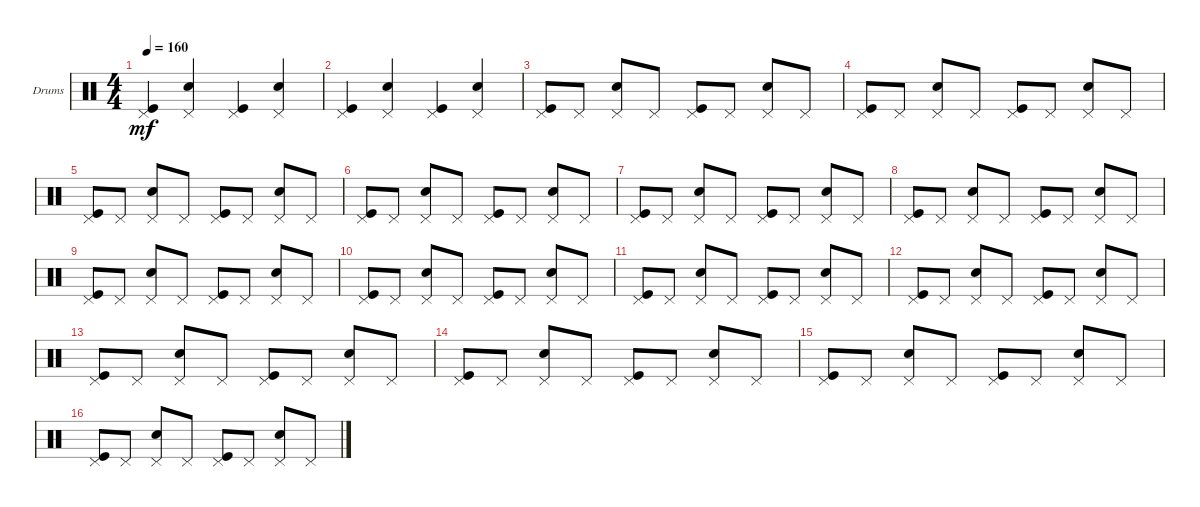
\defaultSystemsLayout 4
\bracketExtendMode groupsimilarinstruments
\firstSystemTrackNameOrientation horizontal
\otherSystemsTrackNameOrientation horizontal
\track ("Drums" "Drums") {instrument percussion}
\staff {score}
\articulation defaults
\ts (4 4)
\tempo 160
\clef neutral
\ks c
("Pedal Hi-Hat (hit)" "Kick (hit)").4{dy mf} ("Pedal Hi-Hat (hit)" "Snare (hit) 2").4 ("Pedal Hi-Hat (hit)" "Kick (hit)").4 ("Pedal Hi-Hat (hit)" "Snare (hit) 2").4 |
("Pedal Hi-Hat (hit)" "Kick (hit)").4 ("Pedal Hi-Hat (hit)" "Snare (hit) 2").4 ("Pedal Hi-Hat (hit)" "Kick (hit)").4 ("Pedal Hi-Hat (hit)" "Snare (hit) 2").4 |
("Pedal Hi-Hat (hit)" "Kick (hit)").8 "Pedal Hi-Hat (hit)".8 ("Pedal Hi-Hat (hit)" "Snare (hit) 2").8 "Pedal Hi-Hat (hit)".8 ("Pedal Hi-Hat (hit)" "Kick (hit)").8 "Pedal Hi-Hat (hit)".8 ("Pedal Hi-Hat (hit)" "Snare (hit) 2").8 "Pedal Hi-Hat (hit)".8 |
("Pedal Hi-Hat (hit)" "Kick (hit)").8 "Pedal Hi-Hat (hit)".8 ("Pedal Hi-Hat (hit)" "Snare (hit) 2").8 "Pedal Hi-Hat (hit)".8 ("Pedal Hi-Hat (hit)" "Kick (hit)").8 "Pedal Hi-Hat (hit)".8 ("Pedal Hi-Hat (hit)" "Snare (hit) 2").8 "Pedal Hi-Hat (hit)".8 |
("Pedal Hi-Hat (hit)" "Kick (hit)").8 "Pedal Hi-Hat (hit)".8 ("Pedal Hi-Hat (hit)" "Snare (hit) 2").8 "Pedal Hi-Hat (hit)".8 ("Pedal Hi-Hat (hit)" "Kick (hit)").8 "Pedal Hi-Hat (hit)".8 ("Pedal Hi-Hat (hit)" "Snare (hit) 2").8 "Pedal Hi-Hat (hit)".8 |
("Pedal Hi-Hat (hit)" "Kick (hit)").8 "Pedal Hi-Hat (hit)".8 ("Pedal Hi-Hat (hit)" "Snare (hit) 2").8 "Pedal Hi-Hat (hit)".8 ("Pedal Hi-Hat (hit)" "Kick (hit)").8 "Pedal Hi-Hat (hit)".8 ("Pedal Hi-Hat (hit)" "Snare (hit) 2").8 "Pedal Hi-Hat (hit)".8 |
("Pedal Hi-Hat (hit)" "Kick (hit)").8 "Pedal Hi-Hat (hit)".8 ("Pedal Hi-Hat (hit)" "Snare (hit) 2").8 "Pedal Hi-Hat (hit)".8 ("Pedal Hi-Hat (hit)" "Kick (hit)").8 "Pedal Hi-Hat (hit)".8 ("Pedal Hi-Hat (hit)" "Snare (hit) 2").8 "Pedal Hi-Hat (hit)".8 |
("Pedal Hi-Hat (hit)" "Kick (hit)").8 "Pedal Hi-Hat (hit)".8 ("Pedal Hi-Hat (hit)" "Snare (hit) 2").8 "Pedal Hi-Hat (hit)".8 ("Pedal Hi-Hat (hit)" "Kick (hit)").8 "Pedal Hi-Hat (hit)".8 ("Pedal Hi-Hat (hit)" "Snare (hit) 2").8 "Pedal Hi-Hat (hit)".8 |
("Pedal Hi-Hat (hit)" "Kick (hit)").8 "Pedal Hi-Hat (hit)".8 ("Pedal Hi-Hat (hit)" "Snare (hit) 2").8 "Pedal Hi-Hat (hit)".8 ("Pedal Hi-Hat (hit)" "Kick (hit)").8 "Pedal Hi-Hat (hit)".8 ("Pedal Hi-Hat (hit)" "Snare (hit) 2").8 "Pedal Hi-Hat (hit)".8 |
("Pedal Hi-Hat (hit)" "Kick (hit)").8 "Pedal Hi-Hat (hit)".8 ("Pedal Hi-Hat (hit)" "Snare (hit) 2").8 "Pedal Hi-Hat (hit)".8 ("Pedal Hi-Hat (hit)" "Kick (hit)").8 "Pedal Hi-Hat (hit)".8 ("Pedal Hi-Hat (hit)" "Snare (hit) 2").8 "Pedal Hi-Hat (hit)".8 |
("Pedal Hi-Hat (hit)" "Kick (hit)").8 "Pedal Hi-Hat (hit)".8 ("Pedal Hi-Hat (hit)" "Snare (hit) 2").8 "Pedal Hi-Hat (hit)".8 ("Pedal Hi-Hat (hit)" "Kick (hit)").8 "Pedal Hi-Hat (hit)".8 ("Pedal Hi-Hat (hit)" "Snare (hit) 2").8 "Pedal Hi-Hat (hit)".8 |
("Pedal Hi-Hat (hit)" "Kick (hit)").8 "Pedal Hi-Hat (hit)".8 ("Pedal Hi-Hat (hit)" "Snare (hit) 2").8 "Pedal Hi-Hat (hit)".8 ("Pedal Hi-Hat (hit)" "Kick (hit)").8 "Pedal Hi-Hat (hit)".8 ("Pedal Hi-Hat (hit)" "Snare (hit) 2").8 "Pedal Hi-Hat (hit)".8 |
("Pedal Hi-Hat (hit)" "Kick (hit)").8 "Pedal Hi-Hat (hit)".8 ("Pedal Hi-Hat (hit)" "Snare (hit) 2").8 "Pedal Hi-Hat (hit)".8 ("Pedal Hi-Hat (hit)" "Kick (hit)").8 "Pedal Hi-Hat (hit)".8 ("Pedal Hi-Hat (hit)" "Snare (hit) 2").8 "Pedal Hi-Hat (hit)".8 |
("Pedal Hi-Hat (hit)" "Kick (hit)").8 "Pedal Hi-Hat (hit)".8 ("Pedal Hi-Hat (hit)" "Snare (hit) 2").8 "Pedal Hi-Hat (hit)".8 ("Pedal Hi-Hat (hit)" "Kick (hit)").8 "Pedal Hi-Hat (hit)".8 ("Pedal Hi-Hat (hit)" "Snare (hit) 2").8 "Pedal Hi-Hat (hit)".8 |
("Pedal Hi-Hat (hit)" "Kick (hit)").8 "Pedal Hi-Hat (hit)".8 ("Pedal Hi-Hat (hit)" "Snare (hit) 2").8 "Pedal Hi-Hat (hit)".8 ("Pedal Hi-Hat (hit)" "Kick (hit)").8 "Pedal Hi-Hat (hit)".8 ("Pedal Hi-Hat (hit)" "Snare (hit) 2").8 "Pedal Hi-Hat (hit)".8 |
("Pedal Hi-Hat (hit)" "Kick (hit)").8 "Pedal Hi-Hat (hit)".8 ("Pedal Hi-Hat (hit)" "Snare (hit) 2").8 "Pedal Hi-Hat (hit)".8 ("Pedal Hi-Hat (hit)" "Kick (hit)").8 "Pedal Hi-Hat (hit)".8 ("Pedal Hi-Hat (hit)" "Snare (hit) 2").8 "Pedal Hi-Hat (hit)".8
